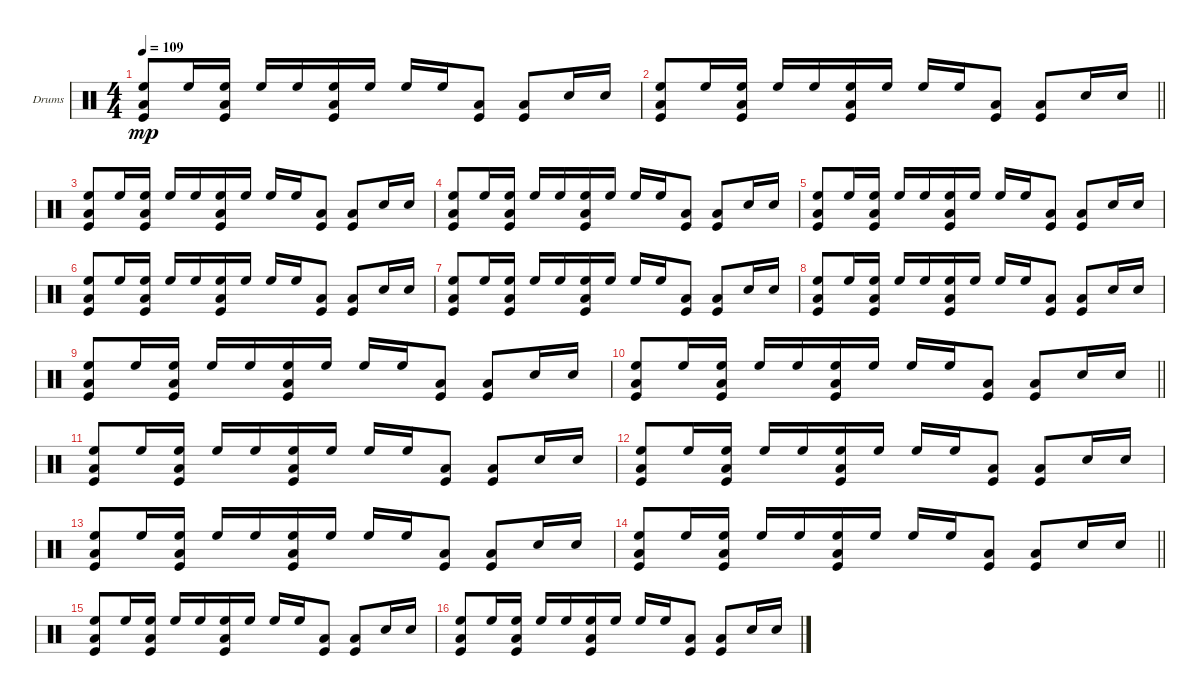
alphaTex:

\defaultSystemsLayout 4
\bracketExtendMode groupsimilarinstruments
\firstSystemTrackNameOrientation horizontal
\otherSystemsTrackNameOrientation horizontal
\track ("Drumkit" "Drums") {instrument percussion}
\staff {score}
\articulation defaults
\ts (4 4)
\tempo 109
\clef neutral
\scale
0.5
\ks c
("Kick (hit)" "Low Tom (hit)" "High Floor Tom (hit)").8{dy mp} "High Floor Tom (hit)".16 ("Kick (hit)" "Low Tom (hit)" "High Floor Tom (hit)").16 "High Floor Tom (hit)".16 "High Floor Tom (hit)".16 ("Kick (hit)" "Low Tom (hit)" "High Floor Tom (hit)").16 "High Floor Tom (hit)".16 "High Floor Tom (hit)".16 "High Floor Tom (hit)".16 ("Kick (hit)" "Low Tom (hit)").8 ("Kick (hit)" "Low Tom (hit)").8 "Snare (hit) 2".16 "Snare (hit) 2".16 |
\scale
0.5
\barLineRight lightlight
("Kick (hit)" "Low Tom (hit)" "High Floor Tom (hit)").8 "High Floor Tom (hit)".16 ("Kick (hit)" "Low Tom (hit)" "High Floor Tom (hit)").16 "High Floor Tom (hit)".16 "High Floor Tom (hit)".16 ("Kick (hit)" "Low Tom (hit)" "High Floor Tom (hit)").16 "High Floor Tom (hit)".16 "High Floor Tom (hit)".16 "High Floor Tom (hit)".16 ("Kick (hit)" "Low Tom (hit)").8 ("Kick (hit)" "Low Tom (hit)").8 "Snare (hit) 2".16 "Snare (hit) 2".16 |
\scale
0.5 ("Kick (hit)" "Low Tom (hit)" "High Floor Tom (hit)").8 "High Floor Tom (hit)".16 ("Kick (hit)" "Low Tom (hit)" "High Floor Tom (hit)").16 "High Floor Tom (hit)".16 "High Floor Tom (hit)".16 ("Kick (hit)" "Low Tom (hit)" "High Floor Tom (hit)").16 "High Floor Tom (hit)".16 "High Floor Tom (hit)".16 "High Floor Tom (hit)".16 ("Kick (hit)" "Low Tom (hit)").8 ("Kick (hit)" "Low Tom (hit)").8 "Snare (hit) 2".16 "Snare (hit) 2".16 |
\scale
0.5 ("Kick (hit)" "Low Tom (hit)" "High Floor Tom (hit)").8 "High Floor Tom (hit)".16 ("Kick (hit)" "Low Tom (hit)" "High Floor Tom (hit)").16 "High Floor Tom (hit)".16 "High Floor Tom (hit)".16 ("Kick (hit)" "Low Tom (hit)" "High Floor Tom (hit)").16 "High Floor Tom (hit)".16 "High Floor Tom (hit)".16 "High Floor Tom (hit)".16 ("Kick (hit)" "Low Tom (hit)").8 ("Kick (hit)" "Low Tom (hit)").8 "Snare (hit) 2".16 "Snare (hit) 2".16 |
\scale
0.5 ("Kick (hit)" "Low Tom (hit)" "High Floor Tom (hit)").8 "High Floor Tom (hit)".16 ("Kick (hit)" "Low Tom (hit)" "High Floor Tom (hit)").16 "High Floor Tom (hit)".16 "High Floor Tom (hit)".16 ("Kick (hit)" "Low Tom (hit)" "High Floor Tom (hit)").16 "High Floor Tom (hit)".16 "High Floor Tom (hit)".16 "High Floor Tom (hit)".16 ("Kick (hit)" "Low Tom (hit)").8 ("Kick (hit)" "Low Tom (hit)").8 "Snare (hit) 2".16 "Snare (hit) 2".16 |
\scale
0.5 ("Kick (hit)" "Low Tom (hit)" "High Floor Tom (hit)").8 "High Floor Tom (hit)".16 ("Kick (hit)" "Low Tom (hit)" "High Floor Tom (hit)").16 "High Floor Tom (hit)".16 "High Floor Tom (hit)".16 ("Kick (hit)" "Low Tom (hit)" "High Floor Tom (hit)").16 "High Floor Tom (hit)".16 "High Floor Tom (hit)".16 "High Floor Tom (hit)".16 ("Kick (hit)" "Low Tom (hit)").8 ("Kick (hit)" "Low Tom (hit)").8 "Snare (hit) 2".16 "Snare (hit) 2".16 |
\scale
0.5 ("Kick (hit)" "Low Tom (hit)" "High Floor Tom (hit)").8 "High Floor Tom (hit)".16 ("Kick (hit)" "Low Tom (hit)" "High Floor Tom (hit)").16 "High Floor Tom (hit)".16 "High Floor Tom (hit)".16 ("Kick (hit)" "Low Tom (hit)" "High Floor Tom (hit)").16 "High Floor Tom (hit)".16 "High Floor Tom (hit)".16 "High Floor Tom (hit)".16 ("Kick (hit)" "Low Tom (hit)").8 ("Kick (hit)" "Low Tom (hit)").8 "Snare (hit) 2".16 "Snare (hit) 2".16 |
\scale
0.5 ("Kick (hit)" "Low Tom (hit)" "High Floor Tom (hit)").8 "High Floor Tom (hit)".16 ("Kick (hit)" "Low Tom (hit)" "High Floor Tom (hit)").16 "High Floor Tom (hit)".16 "High Floor Tom (hit)".16 ("Kick (hit)" "Low Tom (hit)" "High Floor Tom (hit)").16 "High Floor Tom (hit)".16 "High Floor Tom (hit)".16 "High Floor Tom (hit)".16 ("Kick (hit)" "Low Tom (hit)").8 ("Kick (hit)" "Low Tom (hit)").8 "Snare (hit) 2".16 "Snare (hit) 2".16 |
\scale
0.5 ("Kick (hit)" "Low Tom (hit)" "High Floor Tom (hit)").8 "High Floor Tom (hit)".16 ("Kick (hit)" "Low Tom (hit)" "High Floor Tom (hit)").16 "High Floor Tom (hit)".16 "High Floor Tom (hit)".16 ("Kick (hit)" "Low Tom (hit)" "High Floor Tom (hit)").16 "High Floor Tom (hit)".16 "High Floor Tom (hit)".16 "High Floor Tom (hit)".16 ("Kick (hit)" "Low Tom (hit)").8 ("Kick (hit)" "Low Tom (hit)").8 "Snare (hit) 2".16 "Snare (hit) 2".16 |
\scale
0.5
\barLineRight lightlight
("Kick (hit)" "Low Tom (hit)" "High Floor Tom (hit)").8 "High Floor Tom (hit)".16 ("Kick (hit)" "Low Tom (hit)" "High Floor Tom (hit)").16 "High Floor Tom (hit)".16 "High Floor Tom (hit)".16 ("Kick (hit)" "Low Tom (hit)" "High Floor Tom (hit)").16 "High Floor Tom (hit)".16 "High Floor Tom (hit)".16 "High Floor Tom (hit)".16 ("Kick (hit)" "Low Tom (hit)").8 ("Kick (hit)" "Low Tom (hit)").8 "Snare (hit) 2".16 "Snare (hit) 2".16 |
\scale
0.5 ("Kick (hit)" "Low Tom (hit)" "High Floor Tom (hit)").8 "High Floor Tom (hit)".16 ("Kick (hit)" "Low Tom (hit)" "High Floor Tom (hit)").16 "High Floor Tom (hit)".16 "High Floor Tom (hit)".16 ("Kick (hit)" "Low Tom (hit)" "High Floor Tom (hit)").16 "High Floor Tom (hit)".16 "High Floor Tom (hit)".16 "High Floor Tom (hit)".16 ("Kick (hit)" "Low Tom (hit)").8 ("Kick (hit)" "Low Tom (hit)").8 "Snare (hit) 2".16 "Snare (hit) 2".16 |
\scale
0.5 ("Kick (hit)" "Low Tom (hit)" "High Floor Tom (hit)").8 "High Floor Tom (hit)".16 ("Kick (hit)" "Low Tom (hit)" "High Floor Tom (hit)").16 "High Floor Tom (hit)".16 "High Floor Tom (hit)".16 ("Kick (hit)" "Low Tom (hit)" "High Floor Tom (hit)").16 "High Floor Tom (hit)".16 "High Floor Tom (hit)".16 "High Floor Tom (hit)".16 ("Kick (hit)" "Low Tom (hit)").8 ("Kick (hit)" "Low Tom (hit)").8 "Snare (hit) 2".16 "Snare (hit) 2".16 |
\scale
0.5 ("Kick (hit)" "Low Tom (hit)" "High Floor Tom (hit)").8 "High Floor Tom (hit)".16 ("Kick (hit)" "Low Tom (hit)" "High Floor Tom (hit)").16 "High Floor Tom (hit)".16 "High Floor Tom (hit)".16 ("Kick (hit)" "Low Tom (hit)" "High Floor Tom (hit)").16 "High Floor Tom (hit)".16 "High Floor Tom (hit)".16 "High Floor Tom (hit)".16 ("Kick (hit)" "Low Tom (hit)").8 ("Kick (hit)" "Low Tom (hit)").8 "Snare (hit) 2".16 "Snare (hit) 2".16 |
\scale
0.5
\barLineRight lightlight
("Kick (hit)" "Low Tom (hit)" "High Floor Tom (hit)").8 "High Floor Tom (hit)".16 ("Kick (hit)" "Low Tom (hit)" "High Floor Tom (hit)").16 "High Floor Tom (hit)".16 "High Floor Tom (hit)".16 ("Kick (hit)" "Low Tom (hit)" "High Floor Tom (hit)").16 "High Floor Tom (hit)".16 "High Floor Tom (hit)".16 "High Floor Tom (hit)".16 ("Kick (hit)" "Low Tom (hit)").8 ("Kick (hit)" "Low Tom (hit)").8 "Snare (hit) 2".16 "Snare (hit) 2".16 |
\scale
0.5 ("Kick (hit)" "Low Tom (hit)" "High Floor Tom (hit)").8 "High Floor Tom (hit)".16 ("Kick (hit)" "Low Tom (hit)" "High Floor Tom (hit)").16 "High Floor Tom (hit)".16 "High Floor Tom (hit)".16 ("Kick (hit)" "Low Tom (hit)" "High Floor Tom (hit)").16 "High Floor Tom (hit)".16 "High Floor Tom (hit)".16 "High Floor Tom (hit)".16 ("Kick (hit)" "Low Tom (hit)").8 ("Kick (hit)" "Low Tom (hit)").8 "Snare (hit) 2".16 "Snare (hit) 2".16 |
\scale
0.5 ("Kick (hit)" "Low Tom (hit)" "High Floor Tom (hit)").8 "High Floor Tom (hit)".16 ("Kick (hit)" "Low Tom (hit)" "High Floor Tom (hit)").16 "High Floor Tom (hit)".16 "High Floor Tom (hit)".16 ("Kick (hit)" "Low Tom (hit)" "High Floor Tom (hit)").16 "High Floor Tom (hit)".16 "High Floor Tom (hit)".16 "High Floor Tom (hit)".16 ("Kick (hit)" "Low Tom (hit)").8 ("Kick (hit)" "Low Tom (hit)").8 "Snare (hit) 2".16 "Snare (hit) 2".16
